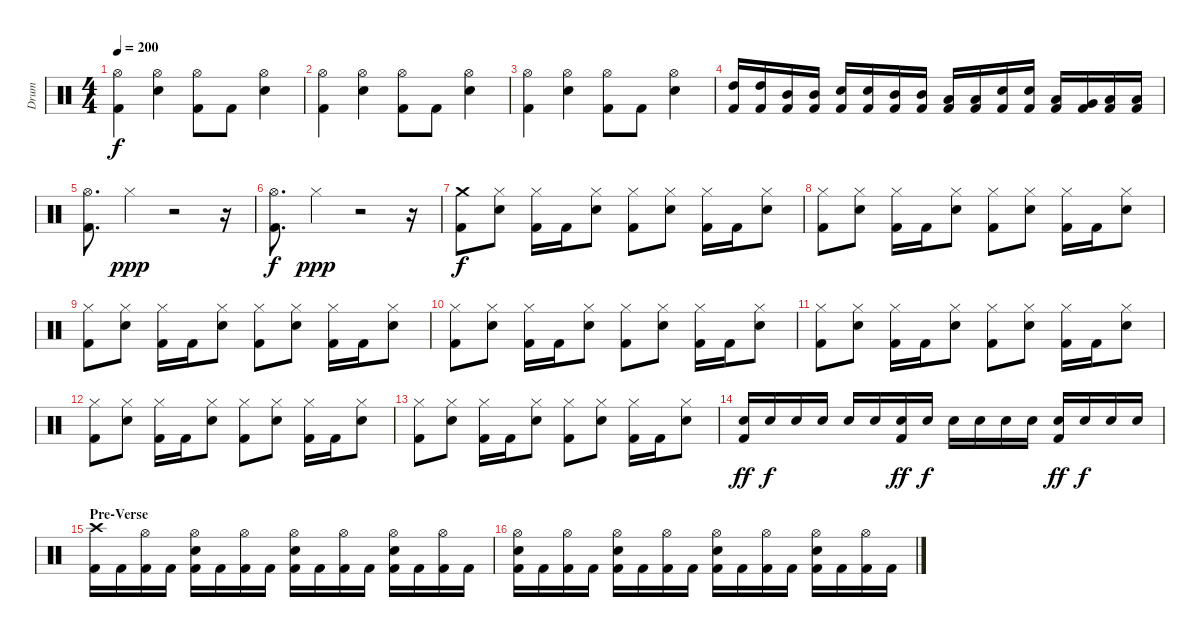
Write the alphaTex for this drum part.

\track ("Drum" "Drum") {instrument percussion}
\staff {score}
\articulation defaults
\ts (4 4)
\tempo 200
\clef neutral
\ks c
("Kick (hit) 2" "Hi-Hat (open)").4{dy f} ("Snare (hit) 2" "Hi-Hat (open)").4 ("Kick (hit) 2" "Hi-Hat (open)").8 "Kick (hit) 2".8 ("Snare (hit) 2" "Hi-Hat (open)").4 |
("Kick (hit) 2" "Hi-Hat (open)").4 ("Snare (hit) 2" "Hi-Hat (open)").4 ("Kick (hit) 2" "Hi-Hat (open)").8 "Kick (hit) 2".8 ("Snare (hit) 2" "Hi-Hat (open)").4 |
("Kick (hit) 2" "Hi-Hat (open)").4 ("Snare (hit) 2" "Hi-Hat (open)").4 ("Kick (hit) 2" "Hi-Hat (open)").8 "Kick (hit) 2".8 ("Snare (hit) 2" "Hi-Hat (open)").4 |
("Kick (hit) 2" "High Tom (hit)").16 ("Kick (hit) 2" "High Tom (hit)").16 ("Kick (hit) 2" "Mid Tom (hit)").16 ("Kick (hit) 2" "Mid Tom (hit)").16 ("Kick (hit) 2" "Snare (hit) 2").16 ("Kick (hit) 2" "Snare (hit) 2").16 ("Kick (hit) 2" "Mid Tom (hit)").16 ("Kick (hit) 2" "Mid Tom (hit)").16 ("Kick (hit) 2" "Low Tom (hit)").16 ("Kick (hit) 2" "Low Tom (hit)").16 ("Kick (hit) 2" "Snare (hit) 2").16 ("Kick (hit) 2" "Snare (hit) 2").16 ("Kick (hit) 2" "Low Tom (hit)").16 ("Kick (hit) 2" "Very Low Tom (hit)").16 ("Kick (hit) 2" "Low Floor Tom (hit)").16 ("Kick (hit) 2" "Low Floor Tom (hit)").16 |
("Kick (hit) 2" "Hi-Hat (open)").8{d} "Hi-Hat (closed)".4{dy ppp} r.2 r.16 |
("Kick (hit) 2" "Hi-Hat (open)").8{d dy f} "Hi-Hat (closed)".4{dy ppp} r.2 r.16 |
\section ("" "")
("Kick (hit) 2" "Crash medium (hit)").8{dy f} ("Snare (hit) 2" "Hi-Hat (closed)").8 ("Kick (hit) 2" "Hi-Hat (closed)").16 "Kick (hit) 2".16 ("Snare (hit) 2" "Hi-Hat (closed)").8 ("Kick (hit) 2" "Hi-Hat (closed)").8 ("Snare (hit) 2" "Hi-Hat (closed)").8 ("Kick (hit) 2" "Hi-Hat (closed)").16 "Kick (hit) 2".16 ("Snare (hit) 2" "Hi-Hat (closed)").8 |
("Kick (hit) 2" "Hi-Hat (closed)").8 ("Snare (hit) 2" "Hi-Hat (closed)").8 ("Kick (hit) 2" "Hi-Hat (closed)").16 "Kick (hit) 2".16 ("Snare (hit) 2" "Hi-Hat (closed)").8 ("Kick (hit) 2" "Hi-Hat (closed)").8 ("Snare (hit) 2" "Hi-Hat (closed)").8 ("Kick (hit) 2" "Hi-Hat (closed)").16 "Kick (hit) 2".16 ("Snare (hit) 2" "Hi-Hat (closed)").8 |
("Kick (hit) 2" "Hi-Hat (closed)").8 ("Snare (hit) 2" "Hi-Hat (closed)").8 ("Kick (hit) 2" "Hi-Hat (closed)").16 "Kick (hit) 2".16 ("Snare (hit) 2" "Hi-Hat (closed)").8 ("Kick (hit) 2" "Hi-Hat (closed)").8 ("Snare (hit) 2" "Hi-Hat (closed)").8 ("Kick (hit) 2" "Hi-Hat (closed)").16 "Kick (hit) 2".16 ("Snare (hit) 2" "Hi-Hat (closed)").8 |
("Kick (hit) 2" "Hi-Hat (closed)").8 ("Snare (hit) 2" "Hi-Hat (closed)").8 ("Kick (hit) 2" "Hi-Hat (closed)").16 "Kick (hit) 2".16 ("Snare (hit) 2" "Hi-Hat (closed)").8 ("Kick (hit) 2" "Hi-Hat (closed)").8 ("Snare (hit) 2" "Hi-Hat (closed)").8 ("Kick (hit) 2" "Hi-Hat (closed)").16 "Kick (hit) 2".16 ("Snare (hit) 2" "Hi-Hat (closed)").8 |
("Kick (hit) 2" "Hi-Hat (closed)").8 ("Snare (hit) 2" "Hi-Hat (closed)").8 ("Kick (hit) 2" "Hi-Hat (closed)").16 "Kick (hit) 2".16 ("Snare (hit) 2" "Hi-Hat (closed)").8 ("Kick (hit) 2" "Hi-Hat (closed)").8 ("Snare (hit) 2" "Hi-Hat (closed)").8 ("Kick (hit) 2" "Hi-Hat (closed)").16 "Kick (hit) 2".16 ("Snare (hit) 2" "Hi-Hat (closed)").8 |
("Kick (hit) 2" "Hi-Hat (closed)").8 ("Snare (hit) 2" "Hi-Hat (closed)").8 ("Kick (hit) 2" "Hi-Hat (closed)").16 "Kick (hit) 2".16 ("Snare (hit) 2" "Hi-Hat (closed)").8 ("Kick (hit) 2" "Hi-Hat (closed)").8 ("Snare (hit) 2" "Hi-Hat (closed)").8 ("Kick (hit) 2" "Hi-Hat (closed)").16 "Kick (hit) 2".16 ("Snare (hit) 2" "Hi-Hat (closed)").8 |
("Kick (hit) 2" "Hi-Hat (closed)").8 ("Snare (hit) 2" "Hi-Hat (closed)").8 ("Kick (hit) 2" "Hi-Hat (closed)").16 "Kick (hit) 2".16 ("Snare (hit) 2" "Hi-Hat (closed)").8 ("Kick (hit) 2" "Hi-Hat (closed)").8 ("Snare (hit) 2" "Hi-Hat (closed)").8 ("Kick (hit) 2" "Hi-Hat (closed)").16 "Kick (hit) 2".16 ("Snare (hit) 2" "Hi-Hat (closed)").8 |
("Kick (hit) 2" "Snare (hit) 2").16{dy ff} "Snare (hit) 2".16{dy f} "Snare (hit) 2".16 "Snare (hit) 2".16 "Snare (hit) 2".16 "Snare (hit) 2".16 ("Kick (hit) 2" "Snare (hit) 2").16{dy ff} "Snare (hit) 2".16{dy f} "Snare (hit) 2".16 "Snare (hit) 2".16 "Snare (hit) 2".16 "Snare (hit) 2".16 ("Kick (hit) 2" "Snare (hit) 2").16{dy ff} "Snare (hit) 2".16{dy f} "Snare (hit) 2".16 "Snare (hit) 2".16 |
\section ("" "Pre-Verse")
("Kick (hit) 2" "Crash high (hit)").16 "Kick (hit) 2".16 ("Kick (hit) 2" "Hi-Hat (open)").16 "Kick (hit) 2".16 ("Kick (hit) 2" "Snare (hit) 2" "Hi-Hat (open)").16 "Kick (hit) 2".16 ("Kick (hit) 2" "Hi-Hat (open)").16 "Kick (hit) 2".16 ("Kick (hit) 2" "Snare (hit) 2" "Hi-Hat (open)").16 "Kick (hit) 2".16 ("Kick (hit) 2" "Hi-Hat (open)").16 "Kick (hit) 2".16 ("Kick (hit) 2" "Snare (hit) 2" "Hi-Hat (open)").16 "Kick (hit) 2".16 ("Kick (hit) 2" "Hi-Hat (open)").16 "Kick (hit) 2".16 |
("Kick (hit) 2" "Snare (hit) 2" "Hi-Hat (open)").16 "Kick (hit) 2".16 ("Kick (hit) 2" "Hi-Hat (open)").16 "Kick (hit) 2".16 ("Kick (hit) 2" "Snare (hit) 2" "Hi-Hat (open)").16 "Kick (hit) 2".16 ("Kick (hit) 2" "Hi-Hat (open)").16 "Kick (hit) 2".16 ("Kick (hit) 2" "Snare (hit) 2" "Hi-Hat (open)").16 "Kick (hit) 2".16 ("Kick (hit) 2" "Hi-Hat (open)").16 "Kick (hit) 2".16 ("Kick (hit) 2" "Snare (hit) 2" "Hi-Hat (open)").16 "Kick (hit) 2".16 ("Kick (hit) 2" "Hi-Hat (open)").16 "Kick (hit) 2".16
